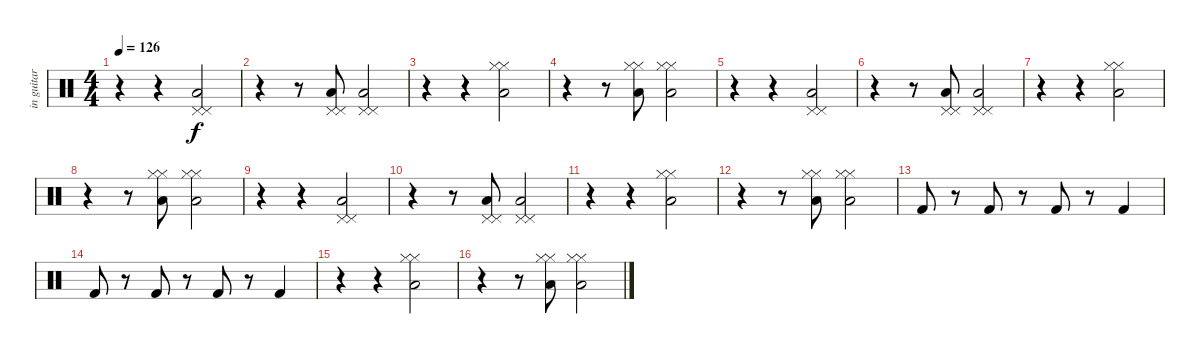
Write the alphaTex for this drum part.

\track ("in guitar" "in guitar") {instrument percussion}
\staff {score}
\articulation defaults
\ts (4 4)
\tempo 126
\clef neutral
\ks c
r.4{dy f} r.4 ("Pedal Hi-Hat (hit)" "Low Floor Tom (hit)" "Pedal Hi-Hat (hit)").2 |
r.4 r.8 ("Pedal Hi-Hat (hit)" "Low Floor Tom (hit)" "Pedal Hi-Hat (hit)").8 ("Pedal Hi-Hat (hit)" "Low Floor Tom (hit)" "Pedal Hi-Hat (hit)").2 |
r.4 r.4 ("Hi-Hat (closed)" "Low Floor Tom (hit)" "Hi-Hat (closed)").2 |
r.4 r.8 ("Hi-Hat (closed)" "Low Floor Tom (hit)" "Hi-Hat (closed)").8 ("Hi-Hat (closed)" "Low Floor Tom (hit)" "Hi-Hat (closed)").2 |
r.4 r.4 ("Pedal Hi-Hat (hit)" "Low Floor Tom (hit)" "Pedal Hi-Hat (hit)").2 |
r.4 r.8 ("Pedal Hi-Hat (hit)" "Low Floor Tom (hit)" "Pedal Hi-Hat (hit)").8 ("Pedal Hi-Hat (hit)" "Low Floor Tom (hit)" "Pedal Hi-Hat (hit)").2 |
r.4 r.4 ("Hi-Hat (closed)" "Low Floor Tom (hit)" "Hi-Hat (closed)").2 |
r.4 r.8 ("Hi-Hat (closed)" "Low Floor Tom (hit)" "Hi-Hat (closed)").8 ("Hi-Hat (closed)" "Low Floor Tom (hit)" "Hi-Hat (closed)").2 |
r.4 r.4 ("Pedal Hi-Hat (hit)" "Low Floor Tom (hit)" "Pedal Hi-Hat (hit)").2 |
r.4 r.8 ("Pedal Hi-Hat (hit)" "Low Floor Tom (hit)" "Pedal Hi-Hat (hit)").8 ("Pedal Hi-Hat (hit)" "Low Floor Tom (hit)" "Pedal Hi-Hat (hit)").2 |
r.4 r.4 ("Hi-Hat (closed)" "Low Floor Tom (hit)" "Hi-Hat (closed)").2 |
r.4 r.8 ("Hi-Hat (closed)" "Low Floor Tom (hit)" "Hi-Hat (closed)").8 ("Hi-Hat (closed)" "Low Floor Tom (hit)" "Hi-Hat (closed)").2 |
"Kick (hit) 2".8 r.8 "Kick (hit) 2".8 r.8 "Kick (hit) 2".8 r.8 "Kick (hit) 2".4 |
"Kick (hit) 2".8 r.8 "Kick (hit) 2".8 r.8 "Kick (hit) 2".8 r.8 "Kick (hit) 2".4 |
r.4 r.4 ("Hi-Hat (closed)" "Low Floor Tom (hit)" "Hi-Hat (closed)").2 |
r.4 r.8 ("Hi-Hat (closed)" "Low Floor Tom (hit)" "Hi-Hat (closed)").8 ("Hi-Hat (closed)" "Low Floor Tom (hit)" "Hi-Hat (closed)").2
